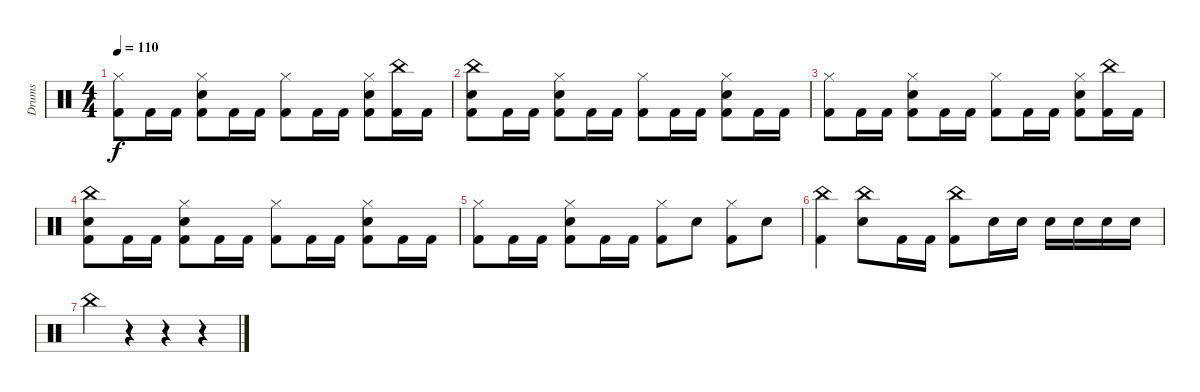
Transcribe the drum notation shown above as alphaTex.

\track ("Drums" "Drums") {instrument percussion}
\staff {score}
\articulation defaults
\ts (4 4)
\tempo 110
\clef neutral
\ks c
("Hi-Hat (closed)" "Kick (hit) 2").8{dy f} "Kick (hit) 2".16 "Kick (hit) 2".16 ("Hi-Hat (closed)" "Snare (hit) 2" "Kick (hit) 2").8 "Kick (hit) 2".16 "Kick (hit) 2".16 ("Hi-Hat (closed)" "Kick (hit) 2").8 "Kick (hit) 2".16 "Kick (hit) 2".16 ("Hi-Hat (closed)" "Snare (hit) 2" "Kick (hit) 2").8 ("China (hit)" "Kick (hit) 2").16 "Kick (hit) 2".16 |
("China (hit)" "Snare (hit) 2" "Kick (hit) 2").8 "Kick (hit) 2".16 "Kick (hit) 2".16 ("Hi-Hat (closed)" "Snare (hit) 2" "Kick (hit) 2").8 "Kick (hit) 2".16 "Kick (hit) 2".16 ("Hi-Hat (closed)" "Kick (hit) 2").8 "Kick (hit) 2".16 "Kick (hit) 2".16 ("Hi-Hat (closed)" "Snare (hit) 2" "Kick (hit) 2").8 "Kick (hit) 2".16 "Kick (hit) 2".16 |
("Hi-Hat (closed)" "Kick (hit) 2").8 "Kick (hit) 2".16 "Kick (hit) 2".16 ("Hi-Hat (closed)" "Snare (hit) 2" "Kick (hit) 2").8 "Kick (hit) 2".16 "Kick (hit) 2".16 ("Hi-Hat (closed)" "Kick (hit) 2").8 "Kick (hit) 2".16 "Kick (hit) 2".16 ("Hi-Hat (closed)" "Snare (hit) 2" "Kick (hit) 2").8 ("China (hit)" "Kick (hit) 2").16 "Kick (hit) 2".16 |
("China (hit)" "Snare (hit) 2" "Kick (hit) 2").8 "Kick (hit) 2".16 "Kick (hit) 2".16 ("Hi-Hat (closed)" "Snare (hit) 2" "Kick (hit) 2").8 "Kick (hit) 2".16 "Kick (hit) 2".16 ("Hi-Hat (closed)" "Kick (hit) 2").8 "Kick (hit) 2".16 "Kick (hit) 2".16 ("Hi-Hat (closed)" "Snare (hit) 2" "Kick (hit) 2").8 "Kick (hit) 2".16 "Kick (hit) 2".16 |
("Hi-Hat (closed)" "Kick (hit) 2").8 "Kick (hit) 2".16 "Kick (hit) 2".16 ("Hi-Hat (closed)" "Snare (hit) 2" "Kick (hit) 2").8 "Kick (hit) 2".16 "Kick (hit) 2".16 ("Hi-Hat (closed)" "Kick (hit) 2").8 "Snare (hit) 2".8 ("Hi-Hat (closed)" "Kick (hit) 2").8 "Snare (hit) 2".8 |
("China (hit)" "Kick (hit) 2").4 ("China (hit)" "Snare (hit) 2").8 "Kick (hit) 2".16 "Kick (hit) 2".16 ("China (hit)" "Kick (hit) 2").8 "Snare (hit) 2".16 "Snare (hit) 2".16 "Snare (hit) 2".16 "Snare (hit) 2".16 "Snare (hit) 2".16 "Snare (hit) 2".16 |
"China (hit)".4 r.4 r.4 r.4
